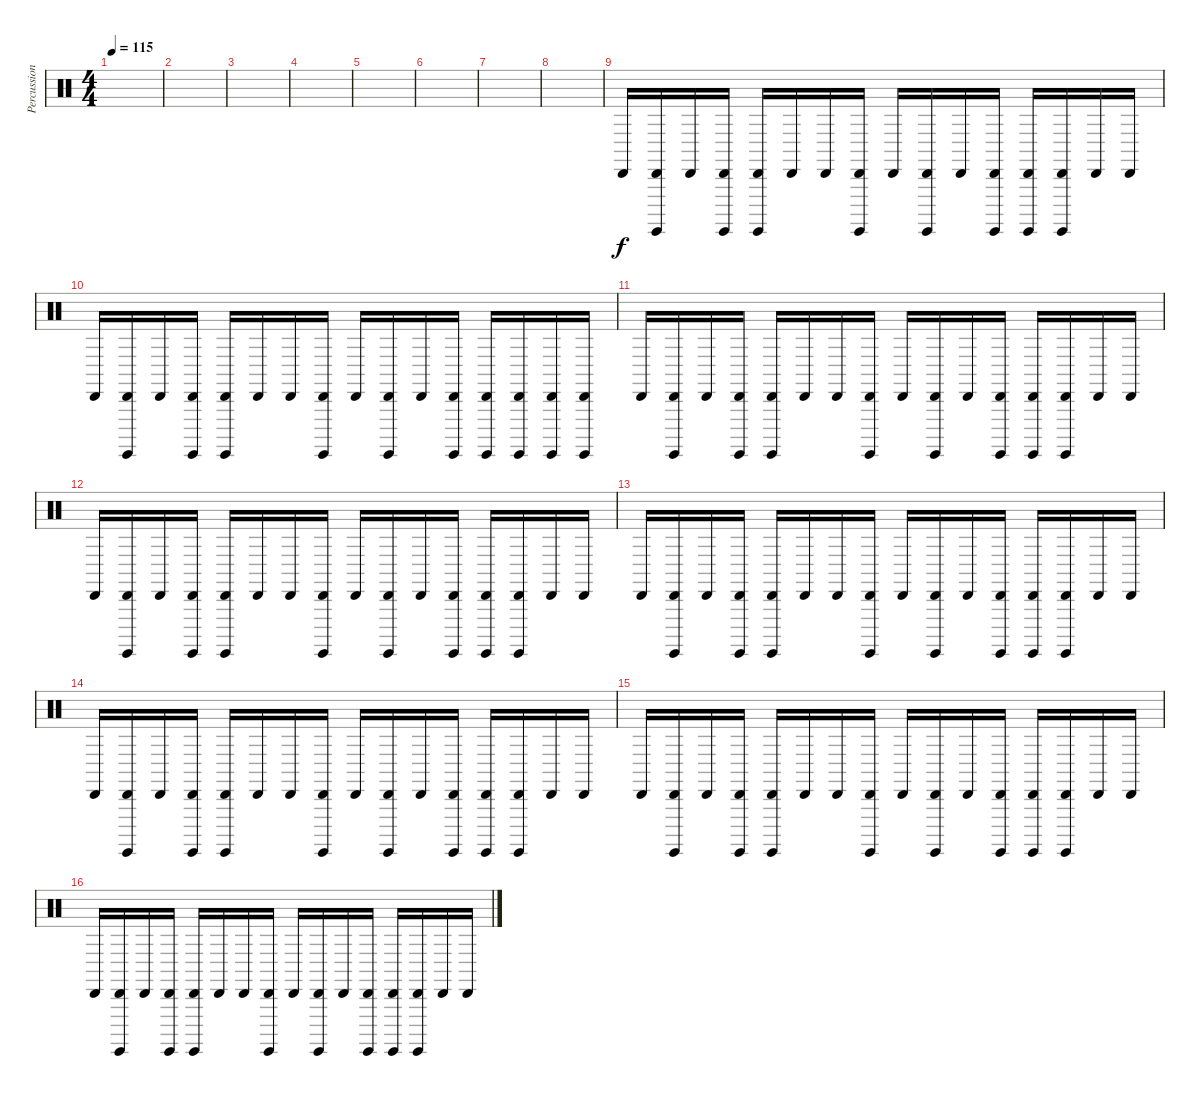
\track ("Percussion" "Percussion") {instrument percussion}
\staff {score}
\articulation defaults
\ts (4 4)
\tempo 115
\clef neutral
\ks c
|
|
|
|
|
|
|
|
"Cabasa (hit)".16 ("Cabasa (hit)" "Surdo (hit)").16 "Cabasa (hit)".16 ("Cabasa (hit)" "Surdo (hit)").16 ("Cabasa (hit)" "Surdo (hit)").16 "Cabasa (hit)".16 "Cabasa (hit)".16 ("Cabasa (hit)" "Surdo (hit)").16 "Cabasa (hit)".16 ("Cabasa (hit)" "Surdo (hit)").16 "Cabasa (hit)".16 ("Cabasa (hit)" "Surdo (hit)").16 ("Cabasa (hit)" "Surdo (hit)").16 ("Cabasa (hit)" "Surdo (hit)").16 "Cabasa (hit)".16 "Cabasa (hit)".16 |
"Cabasa (hit)".16 ("Cabasa (hit)" "Surdo (hit)").16 "Cabasa (hit)".16 ("Cabasa (hit)" "Surdo (hit)").16 ("Cabasa (hit)" "Surdo (hit)").16 "Cabasa (hit)".16 "Cabasa (hit)".16 ("Cabasa (hit)" "Surdo (hit)").16 "Cabasa (hit)".16 ("Cabasa (hit)" "Surdo (hit)").16 "Cabasa (hit)".16 ("Cabasa (hit)" "Surdo (hit)").16 ("Cabasa (hit)" "Surdo (hit)").16 ("Cabasa (hit)" "Surdo (hit)").16 ("Cabasa (hit)" "Surdo (hit)").16 ("Cabasa (hit)" "Surdo (hit)").16 |
"Cabasa (hit)".16 ("Cabasa (hit)" "Surdo (hit)").16 "Cabasa (hit)".16 ("Cabasa (hit)" "Surdo (hit)").16 ("Cabasa (hit)" "Surdo (hit)").16 "Cabasa (hit)".16 "Cabasa (hit)".16 ("Cabasa (hit)" "Surdo (hit)").16 "Cabasa (hit)".16 ("Cabasa (hit)" "Surdo (hit)").16 "Cabasa (hit)".16 ("Cabasa (hit)" "Surdo (hit)").16 ("Cabasa (hit)" "Surdo (hit)").16 ("Cabasa (hit)" "Surdo (hit)").16 "Cabasa (hit)".16 "Cabasa (hit)".16 |
"Cabasa (hit)".16 ("Cabasa (hit)" "Surdo (hit)").16 "Cabasa (hit)".16 ("Cabasa (hit)" "Surdo (hit)").16 ("Cabasa (hit)" "Surdo (hit)").16 "Cabasa (hit)".16 "Cabasa (hit)".16 ("Cabasa (hit)" "Surdo (hit)").16 "Cabasa (hit)".16 ("Cabasa (hit)" "Surdo (hit)").16 "Cabasa (hit)".16 ("Cabasa (hit)" "Surdo (hit)").16 ("Cabasa (hit)" "Surdo (hit)").16 ("Cabasa (hit)" "Surdo (hit)").16 "Cabasa (hit)".16 "Cabasa (hit)".16 |
"Cabasa (hit)".16 ("Cabasa (hit)" "Surdo (hit)").16 "Cabasa (hit)".16 ("Cabasa (hit)" "Surdo (hit)").16 ("Cabasa (hit)" "Surdo (hit)").16 "Cabasa (hit)".16 "Cabasa (hit)".16 ("Cabasa (hit)" "Surdo (hit)").16 "Cabasa (hit)".16 ("Cabasa (hit)" "Surdo (hit)").16 "Cabasa (hit)".16 ("Cabasa (hit)" "Surdo (hit)").16 ("Cabasa (hit)" "Surdo (hit)").16 ("Cabasa (hit)" "Surdo (hit)").16 "Cabasa (hit)".16 "Cabasa (hit)".16 |
"Cabasa (hit)".16 ("Cabasa (hit)" "Surdo (hit)").16 "Cabasa (hit)".16 ("Cabasa (hit)" "Surdo (hit)").16 ("Cabasa (hit)" "Surdo (hit)").16 "Cabasa (hit)".16 "Cabasa (hit)".16 ("Cabasa (hit)" "Surdo (hit)").16 "Cabasa (hit)".16 ("Cabasa (hit)" "Surdo (hit)").16 "Cabasa (hit)".16 ("Cabasa (hit)" "Surdo (hit)").16 ("Cabasa (hit)" "Surdo (hit)").16 ("Cabasa (hit)" "Surdo (hit)").16 "Cabasa (hit)".16 "Cabasa (hit)".16 |
"Cabasa (hit)".16 ("Cabasa (hit)" "Surdo (hit)").16 "Cabasa (hit)".16 ("Cabasa (hit)" "Surdo (hit)").16 ("Cabasa (hit)" "Surdo (hit)").16 "Cabasa (hit)".16 "Cabasa (hit)".16 ("Cabasa (hit)" "Surdo (hit)").16 "Cabasa (hit)".16 ("Cabasa (hit)" "Surdo (hit)").16 "Cabasa (hit)".16 ("Cabasa (hit)" "Surdo (hit)").16 ("Cabasa (hit)" "Surdo (hit)").16 ("Cabasa (hit)" "Surdo (hit)").16 "Cabasa (hit)".16 "Cabasa (hit)".16 |
"Cabasa (hit)".16 ("Cabasa (hit)" "Surdo (hit)").16 "Cabasa (hit)".16 ("Cabasa (hit)" "Surdo (hit)").16 ("Cabasa (hit)" "Surdo (hit)").16 "Cabasa (hit)".16 "Cabasa (hit)".16 ("Cabasa (hit)" "Surdo (hit)").16 "Cabasa (hit)".16 ("Cabasa (hit)" "Surdo (hit)").16 "Cabasa (hit)".16 ("Cabasa (hit)" "Surdo (hit)").16 ("Cabasa (hit)" "Surdo (hit)").16 ("Cabasa (hit)" "Surdo (hit)").16 "Cabasa (hit)".16 "Cabasa (hit)".16
